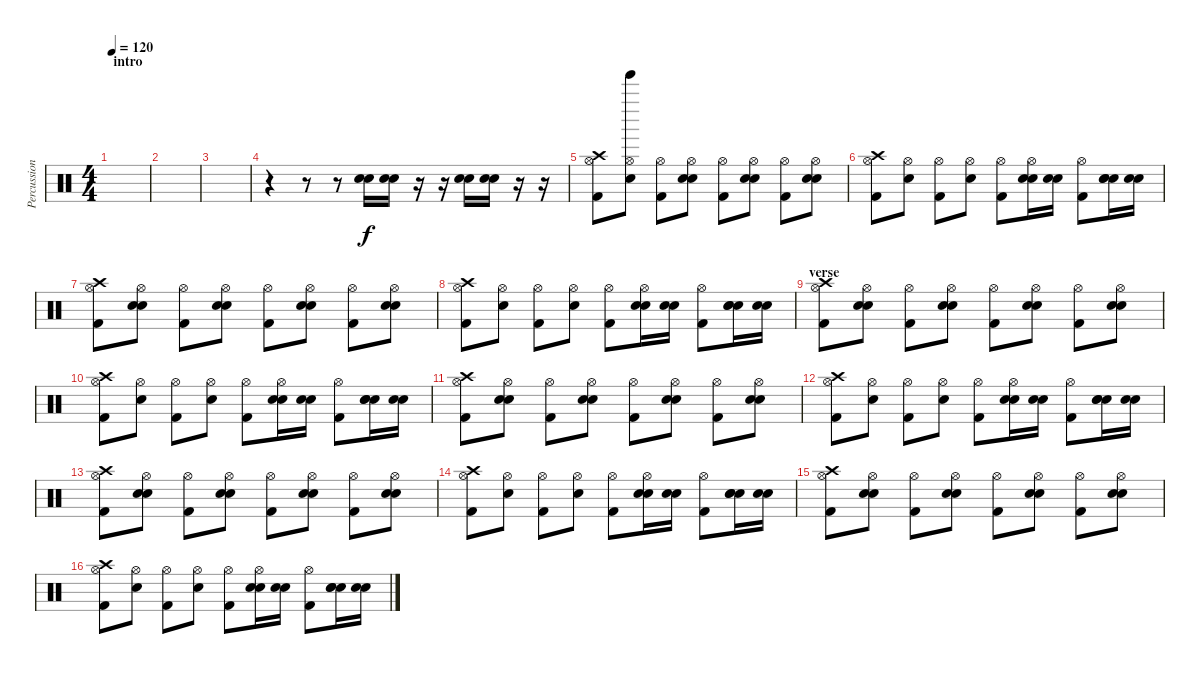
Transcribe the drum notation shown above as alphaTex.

\track ("Percussion" "Percussion") {instrument percussion}
\staff {score}
\articulation defaults
\ts (4 4)
\section ("" "intro")
\tempo 120
\clef neutral
\ks c
|
|
|
r.4 r.8 r.8 ("Electric Snare (hit)" "Snare (hit) 2").16 ("Electric Snare (hit)" "Snare (hit) 2").16 r.16 r.16 ("Electric Snare (hit)" "Snare (hit) 2").16 ("Electric Snare (hit)" "Snare (hit) 2").16 r.16 r.16 |
("Hi-Hat (open)" "Crash high (hit)" "Kick (hit) 2").8{dy f} ("Hi-Hat (open)" "Electric Snare (hit)" "Tinkle Bell (hit)").8 ("Hi-Hat (open)" "Kick (hit) 2").8 ("Hi-Hat (open)" "Electric Snare (hit)" "Snare (hit) 2").8 ("Hi-Hat (open)" "Kick (hit) 2").8 ("Hi-Hat (open)" "Electric Snare (hit)" "Snare (hit) 2").8 ("Hi-Hat (open)" "Kick (hit) 2").8 ("Hi-Hat (open)" "Electric Snare (hit)" "Snare (hit) 2").8 |
("Hi-Hat (open)" "Crash high (hit)" "Kick (hit) 2").8 ("Hi-Hat (open)" "Electric Snare (hit)").8 ("Hi-Hat (open)" "Kick (hit) 2").8 ("Hi-Hat (open)" "Electric Snare (hit)").8 ("Hi-Hat (open)" "Kick (hit) 2").8 ("Hi-Hat (open)" "Electric Snare (hit)" "Snare (hit) 2").16 ("Electric Snare (hit)" "Snare (hit) 2").16 ("Hi-Hat (open)" "Kick (hit) 2").8 ("Electric Snare (hit)" "Electric Snare (hit)" "Snare (hit) 2").16 ("Electric Snare (hit)" "Snare (hit) 2").16 |
("Hi-Hat (open)" "Crash high (hit)" "Kick (hit) 2").8 ("Hi-Hat (open)" "Electric Snare (hit)" "Snare (hit) 2").8 ("Hi-Hat (open)" "Kick (hit) 2").8 ("Hi-Hat (open)" "Electric Snare (hit)" "Snare (hit) 2").8 ("Hi-Hat (open)" "Kick (hit) 2").8 ("Hi-Hat (open)" "Electric Snare (hit)" "Snare (hit) 2").8 ("Hi-Hat (open)" "Kick (hit) 2").8 ("Hi-Hat (open)" "Electric Snare (hit)" "Snare (hit) 2").8 |
("Hi-Hat (open)" "Crash high (hit)" "Kick (hit) 2").8 ("Hi-Hat (open)" "Electric Snare (hit)").8 ("Hi-Hat (open)" "Kick (hit) 2").8 ("Hi-Hat (open)" "Electric Snare (hit)").8 ("Hi-Hat (open)" "Kick (hit) 2").8 ("Hi-Hat (open)" "Electric Snare (hit)" "Snare (hit) 2").16 ("Electric Snare (hit)" "Snare (hit) 2").16 ("Hi-Hat (open)" "Kick (hit) 2").8 ("Electric Snare (hit)" "Electric Snare (hit)" "Snare (hit) 2").16 ("Electric Snare (hit)" "Snare (hit) 2").16 |
\section ("" "verse")
("Hi-Hat (open)" "Crash high (hit)" "Kick (hit) 2").8 ("Hi-Hat (open)" "Electric Snare (hit)" "Snare (hit) 2").8 ("Hi-Hat (open)" "Kick (hit) 2").8 ("Hi-Hat (open)" "Electric Snare (hit)" "Snare (hit) 2").8 ("Hi-Hat (open)" "Kick (hit) 2").8 ("Hi-Hat (open)" "Electric Snare (hit)" "Snare (hit) 2").8 ("Hi-Hat (open)" "Kick (hit) 2").8 ("Hi-Hat (open)" "Electric Snare (hit)" "Snare (hit) 2").8 |
("Hi-Hat (open)" "Crash high (hit)" "Kick (hit) 2").8 ("Hi-Hat (open)" "Electric Snare (hit)").8 ("Hi-Hat (open)" "Kick (hit) 2").8 ("Hi-Hat (open)" "Electric Snare (hit)").8 ("Hi-Hat (open)" "Kick (hit) 2").8 ("Hi-Hat (open)" "Electric Snare (hit)" "Snare (hit) 2").16 ("Electric Snare (hit)" "Snare (hit) 2").16 ("Hi-Hat (open)" "Kick (hit) 2").8 ("Electric Snare (hit)" "Electric Snare (hit)" "Snare (hit) 2").16 ("Electric Snare (hit)" "Snare (hit) 2").16 |
("Hi-Hat (open)" "Crash high (hit)" "Kick (hit) 2").8 ("Hi-Hat (open)" "Electric Snare (hit)" "Snare (hit) 2").8 ("Hi-Hat (open)" "Kick (hit) 2").8 ("Hi-Hat (open)" "Electric Snare (hit)" "Snare (hit) 2").8 ("Hi-Hat (open)" "Kick (hit) 2").8 ("Hi-Hat (open)" "Electric Snare (hit)" "Snare (hit) 2").8 ("Hi-Hat (open)" "Kick (hit) 2").8 ("Hi-Hat (open)" "Electric Snare (hit)" "Snare (hit) 2").8 |
("Hi-Hat (open)" "Crash high (hit)" "Kick (hit) 2").8 ("Hi-Hat (open)" "Electric Snare (hit)").8 ("Hi-Hat (open)" "Kick (hit) 2").8 ("Hi-Hat (open)" "Electric Snare (hit)").8 ("Hi-Hat (open)" "Kick (hit) 2").8 ("Hi-Hat (open)" "Electric Snare (hit)" "Snare (hit) 2").16 ("Electric Snare (hit)" "Snare (hit) 2").16 ("Hi-Hat (open)" "Kick (hit) 2").8 ("Electric Snare (hit)" "Electric Snare (hit)" "Snare (hit) 2").16 ("Electric Snare (hit)" "Snare (hit) 2").16 |
("Hi-Hat (open)" "Crash high (hit)" "Kick (hit) 2").8 ("Hi-Hat (open)" "Electric Snare (hit)" "Snare (hit) 2").8 ("Hi-Hat (open)" "Kick (hit) 2").8 ("Hi-Hat (open)" "Electric Snare (hit)" "Snare (hit) 2").8 ("Hi-Hat (open)" "Kick (hit) 2").8 ("Hi-Hat (open)" "Electric Snare (hit)" "Snare (hit) 2").8 ("Hi-Hat (open)" "Kick (hit) 2").8 ("Hi-Hat (open)" "Electric Snare (hit)" "Snare (hit) 2").8 |
("Hi-Hat (open)" "Crash high (hit)" "Kick (hit) 2").8 ("Hi-Hat (open)" "Electric Snare (hit)").8 ("Hi-Hat (open)" "Kick (hit) 2").8 ("Hi-Hat (open)" "Electric Snare (hit)").8 ("Hi-Hat (open)" "Kick (hit) 2").8 ("Hi-Hat (open)" "Electric Snare (hit)" "Snare (hit) 2").16 ("Electric Snare (hit)" "Snare (hit) 2").16 ("Hi-Hat (open)" "Kick (hit) 2").8 ("Electric Snare (hit)" "Electric Snare (hit)" "Snare (hit) 2").16 ("Electric Snare (hit)" "Snare (hit) 2").16 |
("Hi-Hat (open)" "Crash high (hit)" "Kick (hit) 2").8 ("Hi-Hat (open)" "Electric Snare (hit)" "Snare (hit) 2").8 ("Hi-Hat (open)" "Kick (hit) 2").8 ("Hi-Hat (open)" "Electric Snare (hit)" "Snare (hit) 2").8 ("Hi-Hat (open)" "Kick (hit) 2").8 ("Hi-Hat (open)" "Electric Snare (hit)" "Snare (hit) 2").8 ("Hi-Hat (open)" "Kick (hit) 2").8 ("Hi-Hat (open)" "Electric Snare (hit)" "Snare (hit) 2").8 |
("Hi-Hat (open)" "Crash high (hit)" "Kick (hit) 2").8 ("Hi-Hat (open)" "Electric Snare (hit)").8 ("Hi-Hat (open)" "Kick (hit) 2").8 ("Hi-Hat (open)" "Electric Snare (hit)").8 ("Hi-Hat (open)" "Kick (hit) 2").8 ("Hi-Hat (open)" "Electric Snare (hit)" "Snare (hit) 2").16 ("Electric Snare (hit)" "Snare (hit) 2").16 ("Hi-Hat (open)" "Kick (hit) 2").8 ("Electric Snare (hit)" "Electric Snare (hit)" "Snare (hit) 2").16 ("Electric Snare (hit)" "Snare (hit) 2").16
